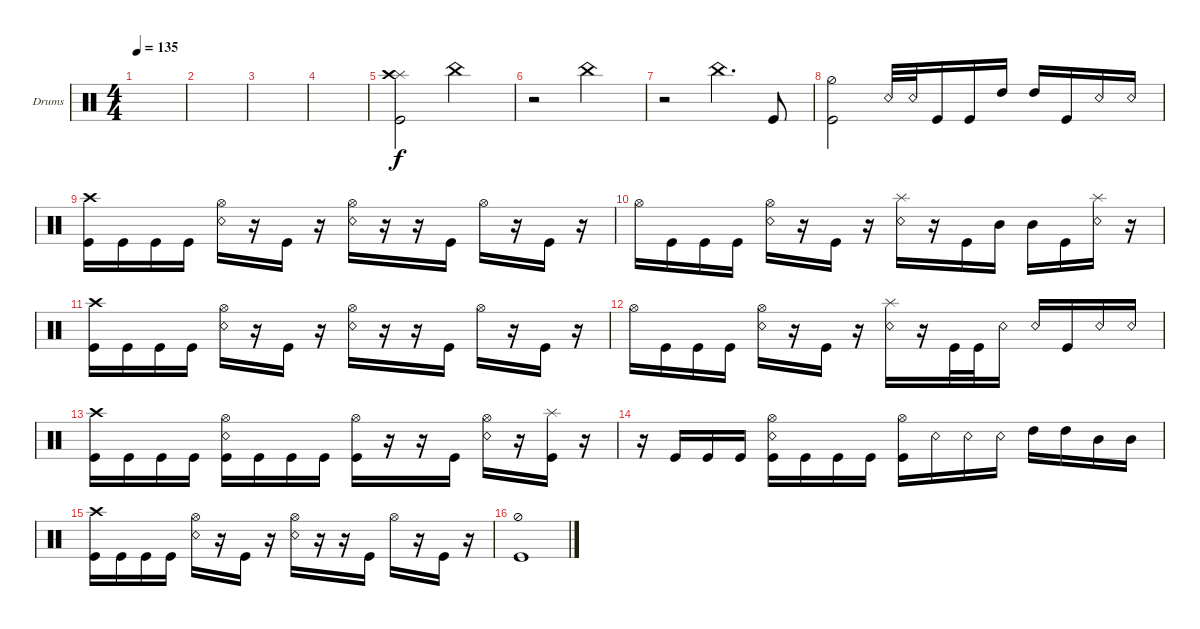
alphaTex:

\defaultSystemsLayout 4
\bracketExtendMode groupsimilarinstruments
\firstSystemTrackNameOrientation horizontal
\otherSystemsTrackNameOrientation horizontal
\track ("Drumkit" "Drums") {instrument percussion}
\staff {score}
\articulation defaults
\ts (4 4)
\tempo 135
\clef neutral
\ks c
|
|
|
|
("Kick (hit)" "Splash (hit)" "Crash high (hit)").2 "China (hit)".2 |
r.2 "China (hit)".2 |
r.2 "China (hit)".4{d} "Kick (hit)".8 |
("Kick (hit)" "Hi-Hat (half)").2 "Snare (rim shot)".32 "Snare (rim shot)".32 "Kick (hit)".16 "Kick (hit)".16 "High Tom (hit)".16 "High Tom (hit)".16 "Kick (hit)".16 "Snare (rim shot)".16 "Snare (rim shot)".16 |
("Kick (hit)" "Crash high (hit)").16 "Kick (hit)".16 "Kick (hit)".16 "Kick (hit)".16 ("Snare (rim shot)" "Hi-Hat (open)").16 r.16 "Kick (hit)".16 r.16 ("Snare (rim shot)" "Hi-Hat (open)").16 r.16 r.16 "Kick (hit)".16 "Hi-Hat (open)".16 r.16 "Kick (hit)".16 r.16 |
"Hi-Hat (open)".16 "Kick (hit)".16 "Kick (hit)".16 "Kick (hit)".16 ("Snare (rim shot)" "Hi-Hat (open)").16 r.16 "Kick (hit)".16 r.16 ("Snare (rim shot)" "Splash (hit)").16 r.16 "Kick (hit)".16 "Mid Tom (hit)".16 "Mid Tom (hit)".16 "Kick (hit)".16 ("Splash (hit)" "Snare (rim shot)").16 r.16 |
("Kick (hit)" "Crash high (hit)").16 "Kick (hit)".16 "Kick (hit)".16 "Kick (hit)".16 ("Snare (rim shot)" "Hi-Hat (open)").16 r.16 "Kick (hit)".16 r.16 ("Snare (rim shot)" "Hi-Hat (open)").16 r.16 r.16 "Kick (hit)".16 "Hi-Hat (open)".16 r.16 "Kick (hit)".16 r.16 |
"Hi-Hat (open)".16 "Kick (hit)".16 "Kick (hit)".16 "Kick (hit)".16 ("Snare (rim shot)" "Hi-Hat (open)").16 r.16 "Kick (hit)".16 r.16 ("Snare (rim shot)" "Splash (hit)").16 r.16 "Kick (hit)".32 "Kick (hit)".32 "Snare (rim shot)".16 "Snare (rim shot)".16 "Kick (hit)".16 "Snare (rim shot)".16 "Snare (rim shot)".16 |
("Kick (hit)" "Crash high (hit)").16 "Kick (hit)".16 "Kick (hit)".16 "Kick (hit)".16 ("Kick (hit)" "Snare (rim shot)" "Hi-Hat (open)").16 "Kick (hit)".16 "Kick (hit)".16 "Kick (hit)".16 ("Kick (hit)" "Hi-Hat (open)").16 r.16 r.16 "Kick (hit)".16 ("Snare (rim shot)" "Hi-Hat (open)").16 r.16 ("Kick (hit)" "Splash (hit)").16 r.16 |
r.16 "Kick (hit)".16 "Kick (hit)".16 "Kick (hit)".16 ("Kick (hit)" "Snare (rim shot)" "Hi-Hat (open)").16 "Kick (hit)".16 "Kick (hit)".16 "Kick (hit)".16 ("Kick (hit)" "Hi-Hat (open)").16 "Snare (rim shot)".16 "Snare (rim shot)".16 "Snare (rim shot)".16 "High Tom (hit)".16 "High Tom (hit)".16 "Mid Tom (hit)".16 "Mid Tom (hit)".16 |
("Kick (hit)" "Crash high (hit)").16 "Kick (hit)".16 "Kick (hit)".16 "Kick (hit)".16 ("Snare (rim shot)" "Hi-Hat (open)").16 r.16 "Kick (hit)".16 r.16 ("Snare (rim shot)" "Hi-Hat (open)").16 r.16 r.16 "Kick (hit)".16 "Hi-Hat (open)".16 r.16 "Kick (hit)".16 r.16 |
("Kick (hit)" "Hi-Hat (half)").1
